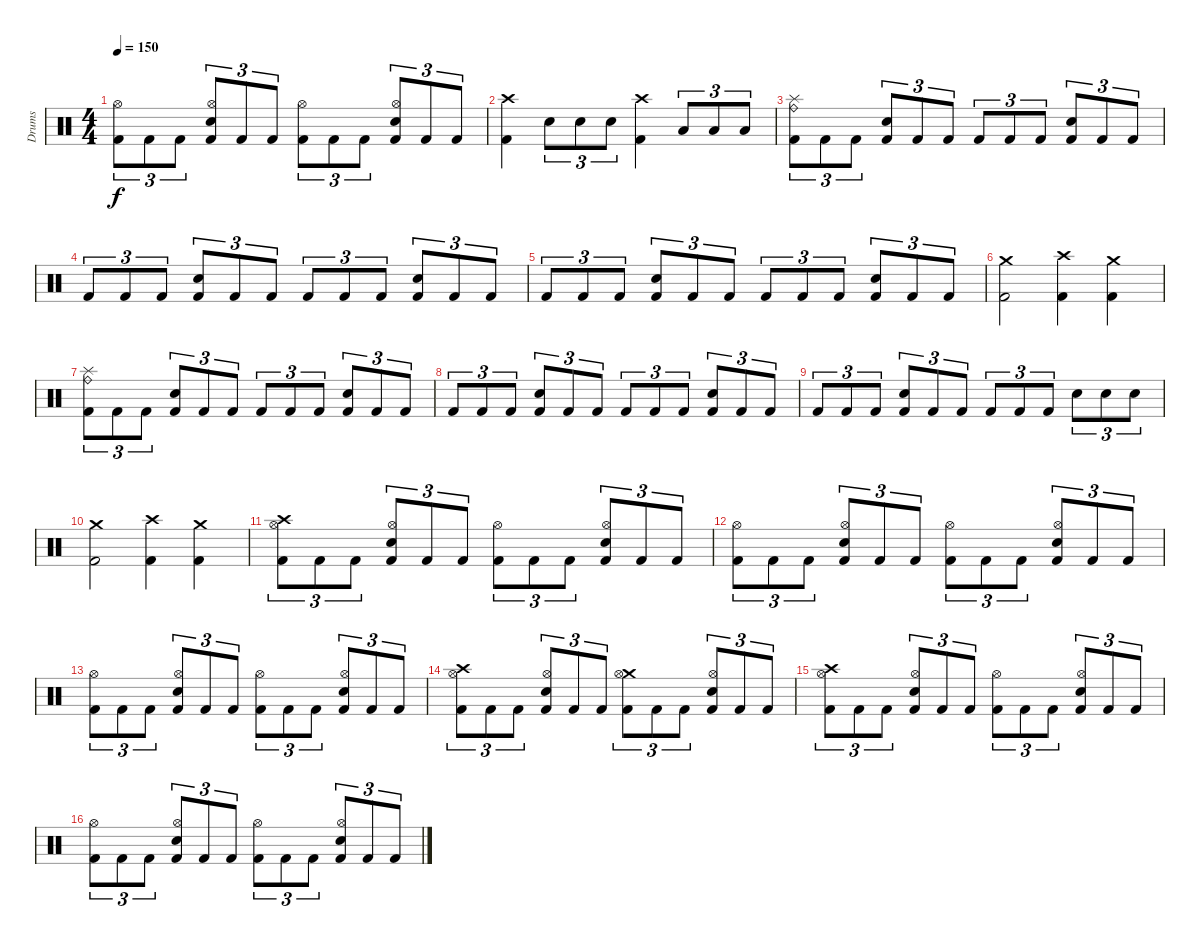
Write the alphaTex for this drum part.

\track ("Drums" "Drums") {instrument percussion}
\staff {score}
\articulation defaults
\ts (4 4)
\tempo 150
\clef neutral
\ks c
("Kick (hit) 2" "Hi-Hat (open)").8{tu (3 2) dy f} "Kick (hit) 2".8{tu (3 2)} "Kick (hit) 2".8{tu (3 2)} ("Kick (hit) 2" "Electric Snare (hit)" "Hi-Hat (open)").8{tu (3 2)} "Kick (hit) 2".8{tu (3 2)} "Kick (hit) 2".8{tu (3 2)} ("Kick (hit) 2" "Hi-Hat (open)").8{tu (3 2)} "Kick (hit) 2".8{tu (3 2)} "Kick (hit) 2".8{tu (3 2)} ("Kick (hit) 2" "Electric Snare (hit)" "Hi-Hat (open)").8{tu (3 2)} "Kick (hit) 2".8{tu (3 2)} "Kick (hit) 2".8{tu (3 2)} |
("Kick (hit) 2" "Crash high (hit)").4 "Electric Snare (hit)".8{tu (3 2)} "Electric Snare (hit)".8{tu (3 2)} "Electric Snare (hit)".8{tu (3 2)} ("Kick (hit) 2" "Crash high (hit)").4 "Low Tom (hit)".8{tu (3 2)} "Low Tom (hit)".8{tu (3 2)} "Low Tom (hit)".8{tu (3 2)} |
("Kick (hit) 2" "Ride (bell)" "Splash (hit)").8{tu (3 2)} "Kick (hit) 2".8{tu (3 2)} "Kick (hit) 2".8{tu (3 2)} ("Kick (hit) 2" "Electric Snare (hit)").8{tu (3 2)} "Kick (hit) 2".8{tu (3 2)} "Kick (hit) 2".8{tu (3 2)} "Kick (hit) 2".8{tu (3 2)} "Kick (hit) 2".8{tu (3 2)} "Kick (hit) 2".8{tu (3 2)} ("Kick (hit) 2" "Electric Snare (hit)").8{tu (3 2)} "Kick (hit) 2".8{tu (3 2)} "Kick (hit) 2".8{tu (3 2)} |
"Kick (hit) 2".8{tu (3 2)} "Kick (hit) 2".8{tu (3 2)} "Kick (hit) 2".8{tu (3 2)} ("Kick (hit) 2" "Electric Snare (hit)").8{tu (3 2)} "Kick (hit) 2".8{tu (3 2)} "Kick (hit) 2".8{tu (3 2)} "Kick (hit) 2".8{tu (3 2)} "Kick (hit) 2".8{tu (3 2)} "Kick (hit) 2".8{tu (3 2)} ("Kick (hit) 2" "Electric Snare (hit)").8{tu (3 2)} "Kick (hit) 2".8{tu (3 2)} "Kick (hit) 2".8{tu (3 2)} |
"Kick (hit) 2".8{tu (3 2)} "Kick (hit) 2".8{tu (3 2)} "Kick (hit) 2".8{tu (3 2)} ("Kick (hit) 2" "Electric Snare (hit)").8{tu (3 2)} "Kick (hit) 2".8{tu (3 2)} "Kick (hit) 2".8{tu (3 2)} "Kick (hit) 2".8{tu (3 2)} "Kick (hit) 2".8{tu (3 2)} "Kick (hit) 2".8{tu (3 2)} ("Kick (hit) 2" "Electric Snare (hit)").8{tu (3 2)} "Kick (hit) 2".8{tu (3 2)} "Kick (hit) 2".8{tu (3 2)} |
("Kick (hit) 2" "Crash medium (hit)").2 ("Kick (hit) 2" "Crash high (hit)").4 ("Kick (hit) 2" "Crash medium (hit)").4 |
("Kick (hit) 2" "Ride (bell)" "Splash (hit)").8{tu (3 2)} "Kick (hit) 2".8{tu (3 2)} "Kick (hit) 2".8{tu (3 2)} ("Kick (hit) 2" "Electric Snare (hit)").8{tu (3 2)} "Kick (hit) 2".8{tu (3 2)} "Kick (hit) 2".8{tu (3 2)} "Kick (hit) 2".8{tu (3 2)} "Kick (hit) 2".8{tu (3 2)} "Kick (hit) 2".8{tu (3 2)} ("Kick (hit) 2" "Electric Snare (hit)").8{tu (3 2)} "Kick (hit) 2".8{tu (3 2)} "Kick (hit) 2".8{tu (3 2)} |
"Kick (hit) 2".8{tu (3 2)} "Kick (hit) 2".8{tu (3 2)} "Kick (hit) 2".8{tu (3 2)} ("Kick (hit) 2" "Electric Snare (hit)").8{tu (3 2)} "Kick (hit) 2".8{tu (3 2)} "Kick (hit) 2".8{tu (3 2)} "Kick (hit) 2".8{tu (3 2)} "Kick (hit) 2".8{tu (3 2)} "Kick (hit) 2".8{tu (3 2)} ("Kick (hit) 2" "Electric Snare (hit)").8{tu (3 2)} "Kick (hit) 2".8{tu (3 2)} "Kick (hit) 2".8{tu (3 2)} |
"Kick (hit) 2".8{tu (3 2)} "Kick (hit) 2".8{tu (3 2)} "Kick (hit) 2".8{tu (3 2)} ("Kick (hit) 2" "Electric Snare (hit)").8{tu (3 2)} "Kick (hit) 2".8{tu (3 2)} "Kick (hit) 2".8{tu (3 2)} "Kick (hit) 2".8{tu (3 2)} "Kick (hit) 2".8{tu (3 2)} "Kick (hit) 2".8{tu (3 2)} "Electric Snare (hit)".8{tu (3 2)} "Electric Snare (hit)".8{tu (3 2)} "Electric Snare (hit)".8{tu (3 2)} |
("Kick (hit) 2" "Crash medium (hit)").2 ("Kick (hit) 2" "Crash high (hit)").4 ("Kick (hit) 2" "Crash medium (hit)").4 |
("Kick (hit) 2" "Crash high (hit)" "Hi-Hat (open)").8{tu (3 2)} "Kick (hit) 2".8{tu (3 2)} "Kick (hit) 2".8{tu (3 2)} ("Kick (hit) 2" "Electric Snare (hit)" "Hi-Hat (open)").8{tu (3 2)} "Kick (hit) 2".8{tu (3 2)} "Kick (hit) 2".8{tu (3 2)} ("Kick (hit) 2" "Hi-Hat (open)").8{tu (3 2)} "Kick (hit) 2".8{tu (3 2)} "Kick (hit) 2".8{tu (3 2)} ("Kick (hit) 2" "Electric Snare (hit)" "Hi-Hat (open)").8{tu (3 2)} "Kick (hit) 2".8{tu (3 2)} "Kick (hit) 2".8{tu (3 2)} |
("Kick (hit) 2" "Hi-Hat (open)").8{tu (3 2)} "Kick (hit) 2".8{tu (3 2)} "Kick (hit) 2".8{tu (3 2)} ("Kick (hit) 2" "Electric Snare (hit)" "Hi-Hat (open)").8{tu (3 2)} "Kick (hit) 2".8{tu (3 2)} "Kick (hit) 2".8{tu (3 2)} ("Kick (hit) 2" "Hi-Hat (open)").8{tu (3 2)} "Kick (hit) 2".8{tu (3 2)} "Kick (hit) 2".8{tu (3 2)} ("Kick (hit) 2" "Electric Snare (hit)" "Hi-Hat (open)").8{tu (3 2)} "Kick (hit) 2".8{tu (3 2)} "Kick (hit) 2".8{tu (3 2)} |
("Kick (hit) 2" "Hi-Hat (open)").8{tu (3 2)} "Kick (hit) 2".8{tu (3 2)} "Kick (hit) 2".8{tu (3 2)} ("Kick (hit) 2" "Electric Snare (hit)" "Hi-Hat (open)").8{tu (3 2)} "Kick (hit) 2".8{tu (3 2)} "Kick (hit) 2".8{tu (3 2)} ("Kick (hit) 2" "Hi-Hat (open)").8{tu (3 2)} "Kick (hit) 2".8{tu (3 2)} "Kick (hit) 2".8{tu (3 2)} ("Kick (hit) 2" "Electric Snare (hit)" "Hi-Hat (open)").8{tu (3 2)} "Kick (hit) 2".8{tu (3 2)} "Kick (hit) 2".8{tu (3 2)} |
("Kick (hit) 2" "Crash high (hit)" "Hi-Hat (open)").8{tu (3 2)} "Kick (hit) 2".8{tu (3 2)} "Kick (hit) 2".8{tu (3 2)} ("Kick (hit) 2" "Electric Snare (hit)" "Hi-Hat (open)").8{tu (3 2)} "Kick (hit) 2".8{tu (3 2)} "Kick (hit) 2".8{tu (3 2)} ("Kick (hit) 2" "Crash medium (hit)" "Hi-Hat (open)").8{tu (3 2)} "Kick (hit) 2".8{tu (3 2)} "Kick (hit) 2".8{tu (3 2)} ("Kick (hit) 2" "Electric Snare (hit)" "Hi-Hat (open)").8{tu (3 2)} "Kick (hit) 2".8{tu (3 2)} "Kick (hit) 2".8{tu (3 2)} |
("Kick (hit) 2" "Crash high (hit)" "Hi-Hat (open)").8{tu (3 2)} "Kick (hit) 2".8{tu (3 2)} "Kick (hit) 2".8{tu (3 2)} ("Kick (hit) 2" "Electric Snare (hit)" "Hi-Hat (open)").8{tu (3 2)} "Kick (hit) 2".8{tu (3 2)} "Kick (hit) 2".8{tu (3 2)} ("Kick (hit) 2" "Hi-Hat (open)").8{tu (3 2)} "Kick (hit) 2".8{tu (3 2)} "Kick (hit) 2".8{tu (3 2)} ("Kick (hit) 2" "Electric Snare (hit)" "Hi-Hat (open)").8{tu (3 2)} "Kick (hit) 2".8{tu (3 2)} "Kick (hit) 2".8{tu (3 2)} |
("Kick (hit) 2" "Hi-Hat (open)").8{tu (3 2)} "Kick (hit) 2".8{tu (3 2)} "Kick (hit) 2".8{tu (3 2)} ("Kick (hit) 2" "Electric Snare (hit)" "Hi-Hat (open)").8{tu (3 2)} "Kick (hit) 2".8{tu (3 2)} "Kick (hit) 2".8{tu (3 2)} ("Kick (hit) 2" "Hi-Hat (open)").8{tu (3 2)} "Kick (hit) 2".8{tu (3 2)} "Kick (hit) 2".8{tu (3 2)} ("Kick (hit) 2" "Electric Snare (hit)" "Hi-Hat (open)").8{tu (3 2)} "Kick (hit) 2".8{tu (3 2)} "Kick (hit) 2".8{tu (3 2)}
